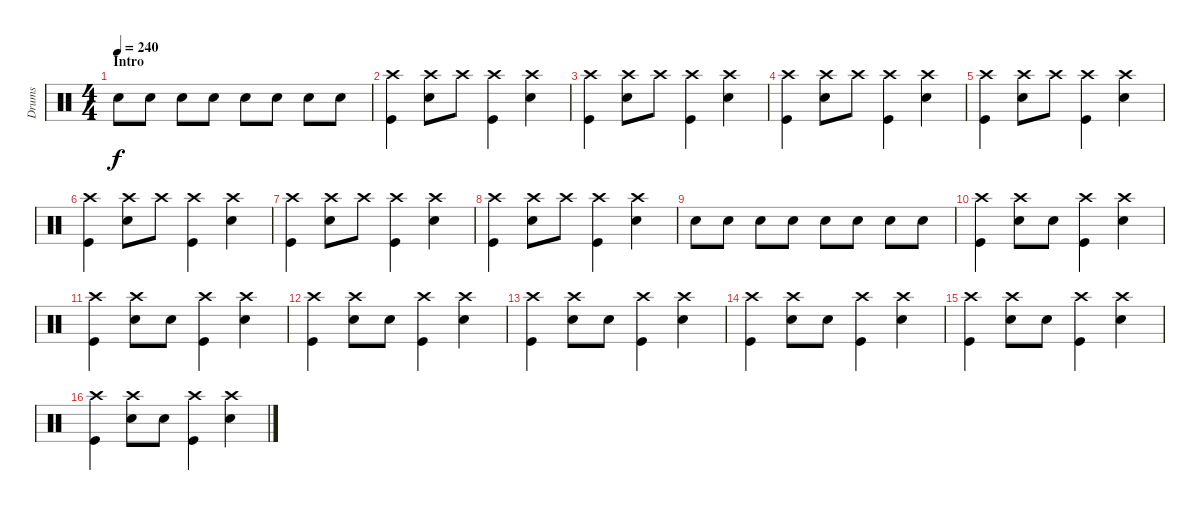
\track ("Drums" "Drums") {instrument percussion}
\staff {score}
\articulation defaults
\ts (4 4)
\section ("" "Intro")
\tempo 240
\clef neutral
\ks c "Snare (hit) 2".8{dy f} "Snare (hit) 2".8 "Snare (hit) 2".8 "Snare (hit) 2".8 "Snare (hit) 2".8 "Snare (hit) 2".8 "Snare (hit) 2".8 "Snare (hit) 2".8
|
("Kick (hit)" "Crash high (hit)").4 ("Snare (hit) 2" "Crash high (hit)").8 "Crash high (hit)".8 ("Kick (hit)" "Crash high (hit)").4 ("Snare (hit) 2" "Crash high (hit)").4 |
("Kick (hit)" "Crash high (hit)").4 ("Snare (hit) 2" "Crash high (hit)").8 "Crash high (hit)".8 ("Kick (hit)" "Crash high (hit)").4 ("Snare (hit) 2" "Crash high (hit)").4 |
("Kick (hit)" "Crash high (hit)").4 ("Snare (hit) 2" "Crash high (hit)").8 "Crash high (hit)".8 ("Kick (hit)" "Crash high (hit)").4 ("Snare (hit) 2" "Crash high (hit)").4 |
("Kick (hit)" "Crash high (hit)").4 ("Snare (hit) 2" "Crash high (hit)").8 "Crash high (hit)".8 ("Kick (hit)" "Crash high (hit)").4 ("Snare (hit) 2" "Crash high (hit)").4 |
("Kick (hit)" "Crash high (hit)").4 ("Snare (hit) 2" "Crash high (hit)").8 "Crash high (hit)".8 ("Kick (hit)" "Crash high (hit)").4 ("Snare (hit) 2" "Crash high (hit)").4 |
("Kick (hit)" "Crash high (hit)").4 ("Snare (hit) 2" "Crash high (hit)").8 "Crash high (hit)".8 ("Kick (hit)" "Crash high (hit)").4 ("Snare (hit) 2" "Crash high (hit)").4 |
("Kick (hit)" "Crash high (hit)").4 ("Snare (hit) 2" "Crash high (hit)").8 "Crash high (hit)".8 ("Kick (hit)" "Crash high (hit)").4 ("Snare (hit) 2" "Crash high (hit)").4 |
"Snare (hit) 2".8 "Snare (hit) 2".8 "Snare (hit) 2".8 "Snare (hit) 2".8 "Snare (hit) 2".8 "Snare (hit) 2".8 "Snare (hit) 2".8 "Snare (hit) 2".8 |
("Kick (hit)" "Crash high (hit)").4 ("Snare (hit) 2" "Crash high (hit)").8 "Snare (hit) 2".8 ("Kick (hit)" "Crash high (hit)").4 ("Snare (hit) 2" "Crash high (hit)").4 |
("Kick (hit)" "Crash high (hit)").4 ("Snare (hit) 2" "Crash high (hit)").8 "Snare (hit) 2".8 ("Kick (hit)" "Crash high (hit)").4 ("Snare (hit) 2" "Crash high (hit)").4 |
("Kick (hit)" "Crash high (hit)").4 ("Snare (hit) 2" "Crash high (hit)").8 "Snare (hit) 2".8 ("Kick (hit)" "Crash high (hit)").4 ("Snare (hit) 2" "Crash high (hit)").4 |
("Kick (hit)" "Crash high (hit)").4 ("Snare (hit) 2" "Crash high (hit)").8 "Snare (hit) 2".8 ("Kick (hit)" "Crash high (hit)").4 ("Snare (hit) 2" "Crash high (hit)").4 |
("Kick (hit)" "Crash high (hit)").4 ("Snare (hit) 2" "Crash high (hit)").8 "Snare (hit) 2".8 ("Kick (hit)" "Crash high (hit)").4 ("Snare (hit) 2" "Crash high (hit)").4 |
("Kick (hit)" "Crash high (hit)").4 ("Snare (hit) 2" "Crash high (hit)").8 "Snare (hit) 2".8 ("Kick (hit)" "Crash high (hit)").4 ("Snare (hit) 2" "Crash high (hit)").4 |
("Kick (hit)" "Crash high (hit)").4 ("Snare (hit) 2" "Crash high (hit)").8 "Snare (hit) 2".8 ("Kick (hit)" "Crash high (hit)").4 ("Snare (hit) 2" "Crash high (hit)").4
